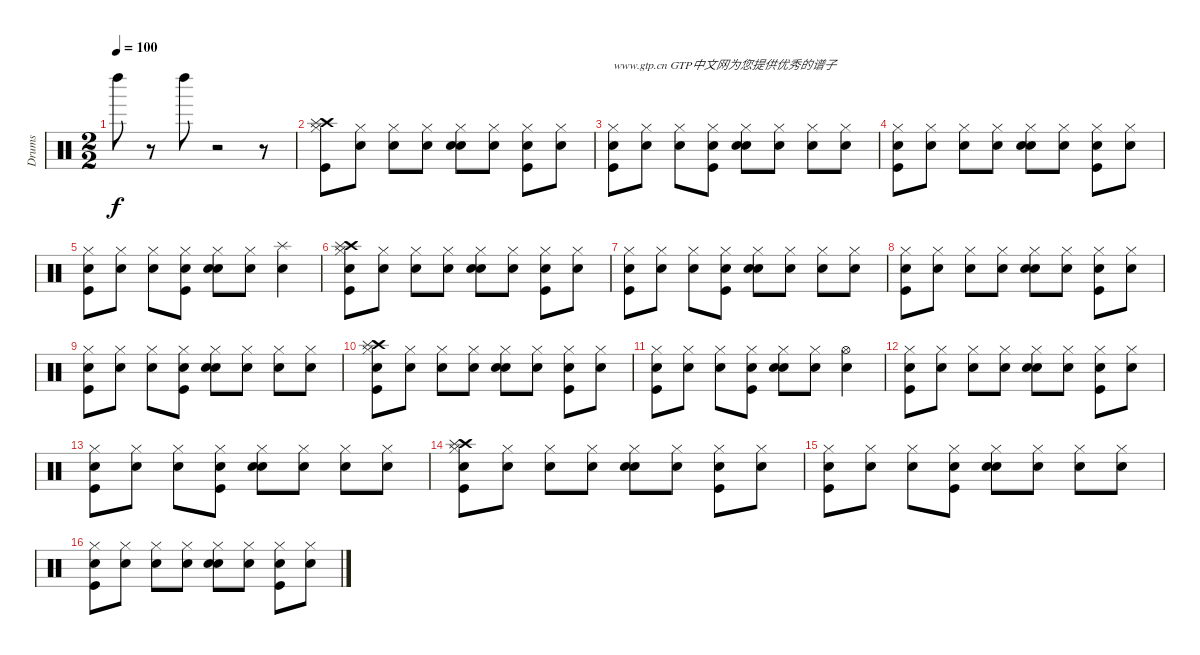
\track ("Drums" "Drums") {instrument percussion}
\staff {score}
\articulation defaults
\ts (2 2)
\tempo 100
\clef neutral
\ks c "Left Maraca (hit)".8{dy f}
r.8 "Left Maraca (hit)".8 r.2 r.8 |
("Kick (hit)" "Crash high (hit)" "Splash (hit)" "Hi-Hat (closed)").8 ("Snare (hit)" "Hi-Hat (closed)").8 ("Snare (hit)" "Hi-Hat (closed)").8 ("Snare (hit)" "Hi-Hat (closed)").8 ("Snare (hit)" "Snare (hit) 2" "Hi-Hat (closed)").8 ("Snare (hit)" "Hi-Hat (closed)").8 ("Snare (hit)" "Kick (hit)" "Hi-Hat (closed)").8 ("Snare (hit)" "Hi-Hat (closed)").8 |
("Snare (hit)" "Kick (hit)" "Hi-Hat (closed)").8{txt "www.gtp.cn GTP中文网为您提供优秀的谱子"} ("Snare (hit)" "Hi-Hat (closed)").8 ("Snare (hit)" "Hi-Hat (closed)").8 ("Snare (hit)" "Kick (hit)" "Hi-Hat (closed)").8 ("Snare (hit)" "Snare (hit) 2" "Hi-Hat (closed)").8 ("Snare (hit)" "Hi-Hat (closed)").8 ("Snare (hit)" "Hi-Hat (closed)").8 ("Snare (hit)" "Hi-Hat (closed)").8 |
("Snare (hit)" "Kick (hit)" "Hi-Hat (closed)").8 ("Snare (hit)" "Hi-Hat (closed)").8 ("Snare (hit)" "Hi-Hat (closed)").8 ("Snare (hit)" "Hi-Hat (closed)").8 ("Snare (hit)" "Snare (hit) 2" "Hi-Hat (closed)").8 ("Snare (hit)" "Hi-Hat (closed)").8 ("Snare (hit)" "Kick (hit)" "Hi-Hat (closed)").8 ("Snare (hit)" "Hi-Hat (closed)").8 |
("Snare (hit)" "Kick (hit)" "Hi-Hat (closed)").8 ("Snare (hit)" "Hi-Hat (closed)").8 ("Snare (hit)" "Hi-Hat (closed)").8 ("Snare (hit)" "Kick (hit)" "Hi-Hat (closed)").8 ("Snare (hit)" "Snare (hit) 2" "Hi-Hat (closed)").8 ("Snare (hit)" "Hi-Hat (closed)").8 ("Snare (hit)" "Splash (hit)").4 |
("Snare (hit)" "Kick (hit)" "Crash high (hit)" "Splash (hit)" "Hi-Hat (closed)").8 ("Snare (hit)" "Hi-Hat (closed)").8 ("Snare (hit)" "Hi-Hat (closed)").8 ("Snare (hit)" "Hi-Hat (closed)").8 ("Snare (hit)" "Snare (hit) 2" "Hi-Hat (closed)").8 ("Snare (hit)" "Hi-Hat (closed)").8 ("Snare (hit)" "Kick (hit)" "Hi-Hat (closed)").8 ("Snare (hit)" "Hi-Hat (closed)").8 |
("Snare (hit)" "Kick (hit)" "Hi-Hat (closed)").8 ("Snare (hit)" "Hi-Hat (closed)").8 ("Snare (hit)" "Hi-Hat (closed)").8 ("Snare (hit)" "Kick (hit)" "Hi-Hat (closed)").8 ("Snare (hit)" "Snare (hit) 2" "Hi-Hat (closed)").8 ("Snare (hit)" "Hi-Hat (closed)").8 ("Snare (hit)" "Hi-Hat (closed)").8 ("Snare (hit)" "Hi-Hat (closed)").8 |
("Snare (hit)" "Kick (hit)" "Hi-Hat (closed)").8 ("Snare (hit)" "Hi-Hat (closed)").8 ("Snare (hit)" "Hi-Hat (closed)").8 ("Snare (hit)" "Hi-Hat (closed)").8 ("Snare (hit)" "Snare (hit) 2" "Hi-Hat (closed)").8 ("Snare (hit)" "Hi-Hat (closed)").8 ("Snare (hit)" "Kick (hit)" "Hi-Hat (closed)").8 ("Snare (hit)" "Hi-Hat (closed)").8 |
("Snare (hit)" "Kick (hit)" "Hi-Hat (closed)").8 ("Snare (hit)" "Hi-Hat (closed)").8 ("Snare (hit)" "Hi-Hat (closed)").8 ("Snare (hit)" "Kick (hit)" "Hi-Hat (closed)").8 ("Snare (hit)" "Snare (hit) 2" "Hi-Hat (closed)").8 ("Snare (hit)" "Hi-Hat (closed)").8 ("Snare (hit)" "Hi-Hat (closed)").8 ("Snare (hit)" "Hi-Hat (closed)").8 |
("Snare (hit)" "Kick (hit)" "Crash high (hit)" "Splash (hit)" "Hi-Hat (closed)").8 ("Snare (hit)" "Hi-Hat (closed)").8 ("Snare (hit)" "Hi-Hat (closed)").8 ("Snare (hit)" "Hi-Hat (closed)").8 ("Snare (hit)" "Snare (hit) 2" "Hi-Hat (closed)").8 ("Snare (hit)" "Hi-Hat (closed)").8 ("Snare (hit)" "Kick (hit)" "Hi-Hat (closed)").8 ("Snare (hit)" "Hi-Hat (closed)").8 |
("Snare (hit)" "Kick (hit)" "Hi-Hat (closed)").8 ("Snare (hit)" "Hi-Hat (closed)").8 ("Snare (hit)" "Hi-Hat (closed)").8 ("Snare (hit)" "Kick (hit)" "Hi-Hat (closed)").8 ("Snare (hit)" "Snare (hit) 2" "Hi-Hat (closed)").8 ("Snare (hit)" "Hi-Hat (closed)").8 ("Snare (hit)" "Hi-Hat (open)").4 |
("Snare (hit)" "Kick (hit)" "Hi-Hat (closed)").8 ("Snare (hit)" "Hi-Hat (closed)").8 ("Snare (hit)" "Hi-Hat (closed)").8 ("Snare (hit)" "Hi-Hat (closed)").8 ("Snare (hit)" "Snare (hit) 2" "Hi-Hat (closed)").8 ("Snare (hit)" "Hi-Hat (closed)").8 ("Snare (hit)" "Kick (hit)" "Hi-Hat (closed)").8 ("Snare (hit)" "Hi-Hat (closed)").8 |
("Snare (hit)" "Kick (hit)" "Hi-Hat (closed)").8 ("Snare (hit)" "Hi-Hat (closed)").8 ("Snare (hit)" "Hi-Hat (closed)").8 ("Snare (hit)" "Kick (hit)" "Hi-Hat (closed)").8 ("Snare (hit)" "Snare (hit) 2" "Hi-Hat (closed)").8 ("Snare (hit)" "Hi-Hat (closed)").8 ("Snare (hit)" "Hi-Hat (closed)").8 ("Snare (hit)" "Hi-Hat (closed)").8 |
("Snare (hit)" "Kick (hit)" "Crash high (hit)" "Splash (hit)" "Hi-Hat (closed)").8 ("Snare (hit)" "Hi-Hat (closed)").8 ("Snare (hit)" "Hi-Hat (closed)").8 ("Snare (hit)" "Hi-Hat (closed)").8 ("Snare (hit)" "Snare (hit) 2" "Hi-Hat (closed)").8 ("Snare (hit)" "Hi-Hat (closed)").8 ("Snare (hit)" "Kick (hit)" "Hi-Hat (closed)").8 ("Snare (hit)" "Hi-Hat (closed)").8 |
("Snare (hit)" "Kick (hit)" "Hi-Hat (closed)").8 ("Snare (hit)" "Hi-Hat (closed)").8 ("Snare (hit)" "Hi-Hat (closed)").8 ("Snare (hit)" "Kick (hit)" "Hi-Hat (closed)").8 ("Snare (hit)" "Snare (hit) 2" "Hi-Hat (closed)").8 ("Snare (hit)" "Hi-Hat (closed)").8 ("Snare (hit)" "Hi-Hat (closed)").8 ("Snare (hit)" "Hi-Hat (closed)").8 |
("Snare (hit)" "Kick (hit)" "Hi-Hat (closed)").8 ("Snare (hit)" "Hi-Hat (closed)").8 ("Snare (hit)" "Hi-Hat (closed)").8 ("Snare (hit)" "Hi-Hat (closed)").8 ("Snare (hit)" "Snare (hit) 2" "Hi-Hat (closed)").8 ("Snare (hit)" "Hi-Hat (closed)").8 ("Snare (hit)" "Kick (hit)" "Hi-Hat (closed)").8 ("Snare (hit)" "Hi-Hat (closed)").8
